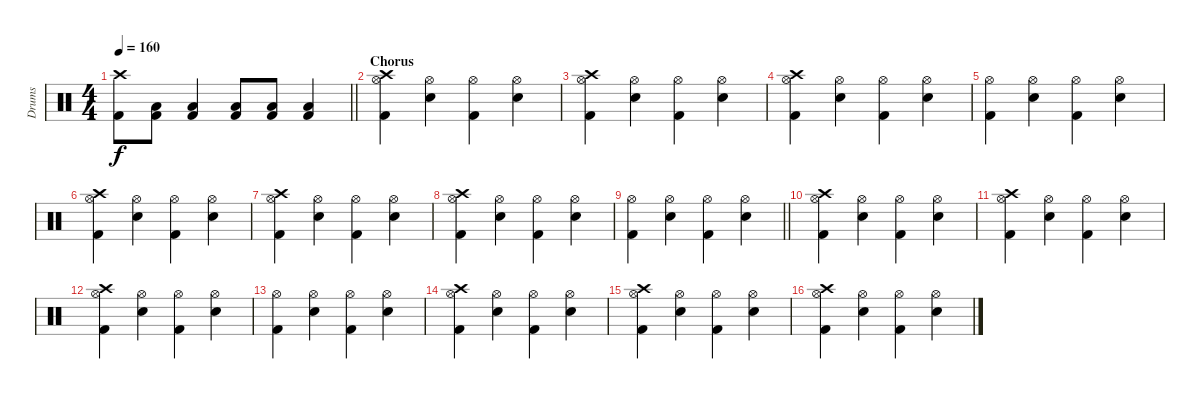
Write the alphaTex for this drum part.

\track ("Drums" "Drums") {instrument percussion}
\staff {score}
\articulation defaults
\ts (4 4)
\tempo 160
\clef neutral
\barLineRight lightlight
\ks c
("Kick (hit) 2" "Crash high (hit)").8{dy f} ("Low Floor Tom (hit)" "Kick (hit) 2").8 ("Low Floor Tom (hit)" "Kick (hit) 2").4 ("Low Floor Tom (hit)" "Kick (hit) 2").8 ("Low Floor Tom (hit)" "Kick (hit) 2").8 ("Low Floor Tom (hit)" "Kick (hit) 2").4 |
\section ("" "Chorus")
("Kick (hit) 2" "Hi-Hat (open)" "Crash high (hit)").4 ("Snare (hit) 2" "Hi-Hat (open)").4 ("Kick (hit) 2" "Hi-Hat (open)").4 ("Snare (hit) 2" "Hi-Hat (open)").4 |
("Kick (hit) 2" "Hi-Hat (open)" "Crash high (hit)").4 ("Snare (hit) 2" "Hi-Hat (open)").4 ("Kick (hit) 2" "Hi-Hat (open)").4 ("Snare (hit) 2" "Hi-Hat (open)").4 |
("Kick (hit) 2" "Hi-Hat (open)" "Crash high (hit)").4 ("Snare (hit) 2" "Hi-Hat (open)").4 ("Kick (hit) 2" "Hi-Hat (open)").4 ("Snare (hit) 2" "Hi-Hat (open)").4 |
("Kick (hit) 2" "Hi-Hat (open)").4 ("Snare (hit) 2" "Hi-Hat (open)").4 ("Kick (hit) 2" "Hi-Hat (open)").4 ("Snare (hit) 2" "Hi-Hat (open)").4 |
("Kick (hit) 2" "Hi-Hat (open)" "Crash high (hit)").4 ("Snare (hit) 2" "Hi-Hat (open)").4 ("Kick (hit) 2" "Hi-Hat (open)").4 ("Snare (hit) 2" "Hi-Hat (open)").4 |
("Kick (hit) 2" "Hi-Hat (open)" "Crash high (hit)").4 ("Snare (hit) 2" "Hi-Hat (open)").4 ("Kick (hit) 2" "Hi-Hat (open)").4 ("Snare (hit) 2" "Hi-Hat (open)").4 |
("Kick (hit) 2" "Hi-Hat (open)" "Crash high (hit)").4 ("Snare (hit) 2" "Hi-Hat (open)").4 ("Kick (hit) 2" "Hi-Hat (open)").4 ("Snare (hit) 2" "Hi-Hat (open)").4 |
\barLineRight lightlight
("Kick (hit) 2" "Hi-Hat (open)").4 ("Snare (hit) 2" "Hi-Hat (open)").4 ("Kick (hit) 2" "Hi-Hat (open)").4 ("Snare (hit) 2" "Hi-Hat (open)").4 |
("Kick (hit) 2" "Hi-Hat (open)" "Crash high (hit)").4 ("Snare (hit) 2" "Hi-Hat (open)").4 ("Kick (hit) 2" "Hi-Hat (open)").4 ("Snare (hit) 2" "Hi-Hat (open)").4 |
("Kick (hit) 2" "Hi-Hat (open)" "Crash high (hit)").4 ("Snare (hit) 2" "Hi-Hat (open)").4 ("Kick (hit) 2" "Hi-Hat (open)").4 ("Snare (hit) 2" "Hi-Hat (open)").4 |
("Kick (hit) 2" "Hi-Hat (open)" "Crash high (hit)").4 ("Snare (hit) 2" "Hi-Hat (open)").4 ("Kick (hit) 2" "Hi-Hat (open)").4 ("Snare (hit) 2" "Hi-Hat (open)").4 |
("Kick (hit) 2" "Hi-Hat (open)").4 ("Snare (hit) 2" "Hi-Hat (open)").4 ("Kick (hit) 2" "Hi-Hat (open)").4 ("Snare (hit) 2" "Hi-Hat (open)").4 |
("Kick (hit) 2" "Hi-Hat (open)" "Crash high (hit)").4 ("Snare (hit) 2" "Hi-Hat (open)").4 ("Kick (hit) 2" "Hi-Hat (open)").4 ("Snare (hit) 2" "Hi-Hat (open)").4 |
("Kick (hit) 2" "Hi-Hat (open)" "Crash high (hit)").4 ("Snare (hit) 2" "Hi-Hat (open)").4 ("Kick (hit) 2" "Hi-Hat (open)").4 ("Snare (hit) 2" "Hi-Hat (open)").4 |
("Kick (hit) 2" "Hi-Hat (open)" "Crash high (hit)").4 ("Snare (hit) 2" "Hi-Hat (open)").4 ("Kick (hit) 2" "Hi-Hat (open)").4 ("Snare (hit) 2" "Hi-Hat (open)").4
